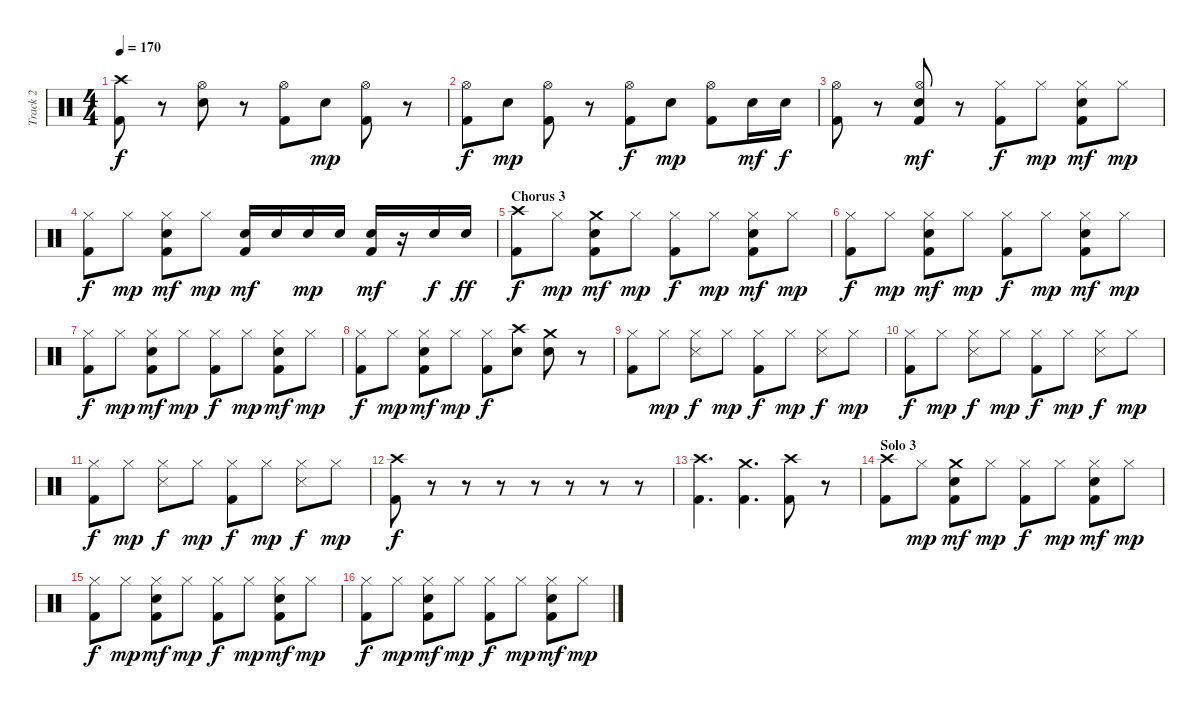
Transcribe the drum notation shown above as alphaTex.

\track ("Track 2" "Track 2") {instrument percussion}
\staff {score}
\articulation defaults
\ts (4 4)
\tempo 170
\clef neutral
\ks c
("Crash high (hit)" "Kick (hit) 2").8{dy f} r.8 ("Hi-Hat (open)" "Electric Snare (hit)").8 r.8 ("Hi-Hat (open)" "Kick (hit) 2").8 "Electric Snare (hit)".8{dy mp} ("Hi-Hat (open)" "Kick (hit) 2").8 r.8 |
("Hi-Hat (open)" "Kick (hit) 2").8{dy f} "Electric Snare (hit)".8{dy mp} ("Hi-Hat (open)" "Kick (hit) 2").8 r.8 ("Hi-Hat (open)" "Kick (hit) 2").8{dy f} "Electric Snare (hit)".8{dy mp} ("Hi-Hat (open)" "Kick (hit) 2").8 "Electric Snare (hit)".16{dy mf} "Electric Snare (hit)".16{dy f} |
("Hi-Hat (open)" "Kick (hit) 2").8 r.8 ("Hi-Hat (open)" "Electric Snare (hit)" "Kick (hit) 2").8{dy mf} r.8 ("Hi-Hat (closed)" "Kick (hit) 2").8{dy f} "Hi-Hat (closed)".8{dy mp} ("Hi-Hat (closed)" "Electric Snare (hit)" "Kick (hit) 2").8{dy mf} "Hi-Hat (closed)".8{dy mp} |
("Hi-Hat (closed)" "Kick (hit) 2").8{dy f} "Hi-Hat (closed)".8{dy mp} ("Hi-Hat (closed)" "Electric Snare (hit)" "Kick (hit) 2").8{dy mf} "Hi-Hat (closed)".8{dy mp} ("Electric Snare (hit)" "Kick (hit) 2").16{dy mf} "Electric Snare (hit)".16 "Electric Snare (hit)".16{dy mp} "Electric Snare (hit)".16 ("Electric Snare (hit)" "Kick (hit) 2").16{dy mf} r.16 "Electric Snare (hit)".16{dy f} "Electric Snare (hit)".16{dy ff} |
\section ("" "Chorus 3")
("Crash high (hit)" "Kick (hit) 2").8{dy f} "Hi-Hat (closed)".8{dy mp} ("Crash medium (hit)" "Electric Snare (hit)" "Kick (hit) 2").8{dy mf} "Hi-Hat (closed)".8{dy mp} ("Hi-Hat (closed)" "Kick (hit) 2").8{dy f} "Hi-Hat (closed)".8{dy mp} ("Hi-Hat (closed)" "Electric Snare (hit)" "Kick (hit) 2").8{dy mf} "Hi-Hat (closed)".8{dy mp} |
("Hi-Hat (closed)" "Kick (hit) 2").8{dy f} "Hi-Hat (closed)".8{dy mp} ("Hi-Hat (closed)" "Electric Snare (hit)" "Kick (hit) 2").8{dy mf} "Hi-Hat (closed)".8{dy mp} ("Hi-Hat (closed)" "Kick (hit) 2").8{dy f} "Hi-Hat (closed)".8{dy mp} ("Hi-Hat (closed)" "Electric Snare (hit)" "Kick (hit) 2").8{dy mf} "Hi-Hat (closed)".8{dy mp} |
("Hi-Hat (closed)" "Kick (hit) 2").8{dy f} "Hi-Hat (closed)".8{dy mp} ("Hi-Hat (closed)" "Electric Snare (hit)" "Kick (hit) 2").8{dy mf} "Hi-Hat (closed)".8{dy mp} ("Hi-Hat (closed)" "Kick (hit) 2").8{dy f} "Hi-Hat (closed)".8{dy mp} ("Hi-Hat (closed)" "Electric Snare (hit)" "Kick (hit) 2").8{dy mf} "Hi-Hat (closed)".8{dy mp} |
("Hi-Hat (closed)" "Kick (hit) 2").8{dy f} "Hi-Hat (closed)".8{dy mp} ("Hi-Hat (closed)" "Electric Snare (hit)" "Kick (hit) 2").8{dy mf} "Hi-Hat (closed)".8{dy mp} ("Hi-Hat (closed)" "Kick (hit) 2").8{dy f} ("Crash high (hit)" "Electric Snare (hit)").8 ("Crash medium (hit)" "Electric Snare (hit)").8 r.8 |
("Hi-Hat (closed)" "Kick (hit) 2").8 "Hi-Hat (closed)".8{dy mp} ("Hi-Hat (closed)" "Snare (side stick) 3").8{dy f} "Hi-Hat (closed)".8{dy mp} ("Hi-Hat (closed)" "Kick (hit) 2").8{dy f} "Hi-Hat (closed)".8{dy mp} ("Hi-Hat (closed)" "Snare (side stick) 3").8{dy f} "Hi-Hat (closed)".8{dy mp} |
("Hi-Hat (closed)" "Kick (hit) 2").8{dy f} "Hi-Hat (closed)".8{dy mp} ("Hi-Hat (closed)" "Snare (side stick) 3").8{dy f} "Hi-Hat (closed)".8{dy mp} ("Hi-Hat (closed)" "Kick (hit) 2").8{dy f} "Hi-Hat (closed)".8{dy mp} ("Hi-Hat (closed)" "Snare (side stick) 3").8{dy f} "Hi-Hat (closed)".8{dy mp} |
("Hi-Hat (closed)" "Kick (hit) 2").8{dy f} "Hi-Hat (closed)".8{dy mp} ("Hi-Hat (closed)" "Snare (side stick) 3").8{dy f} "Hi-Hat (closed)".8{dy mp} ("Hi-Hat (closed)" "Kick (hit) 2").8{dy f} "Hi-Hat (closed)".8{dy mp} ("Hi-Hat (closed)" "Snare (side stick) 3").8{dy f} "Hi-Hat (closed)".8{dy mp} |
("Crash high (hit)" "Kick (hit) 2").8{dy f} r.8 r.8 r.8 r.8 r.8 r.8 r.8 |
("Crash high (hit)" "Kick (hit) 2").4{d} ("Crash medium (hit)" "Kick (hit) 2").4{d} ("Crash high (hit)" "Kick (hit) 2").8 r.8 |
\section ("" "Solo 3")
("Crash high (hit)" "Kick (hit) 2").8 "Hi-Hat (closed)".8{dy mp} ("Crash medium (hit)" "Electric Snare (hit)" "Kick (hit) 2").8{dy mf} "Hi-Hat (closed)".8{dy mp} ("Hi-Hat (closed)" "Kick (hit) 2").8{dy f} "Hi-Hat (closed)".8{dy mp} ("Hi-Hat (closed)" "Electric Snare (hit)" "Kick (hit) 2").8{dy mf} "Hi-Hat (closed)".8{dy mp} |
("Hi-Hat (closed)" "Kick (hit) 2").8{dy f} "Hi-Hat (closed)".8{dy mp} ("Hi-Hat (closed)" "Electric Snare (hit)" "Kick (hit) 2").8{dy mf} "Hi-Hat (closed)".8{dy mp} ("Hi-Hat (closed)" "Kick (hit) 2").8{dy f} "Hi-Hat (closed)".8{dy mp} ("Hi-Hat (closed)" "Electric Snare (hit)" "Kick (hit) 2").8{dy mf} "Hi-Hat (closed)".8{dy mp} |
("Hi-Hat (closed)" "Kick (hit) 2").8{dy f} "Hi-Hat (closed)".8{dy mp} ("Hi-Hat (closed)" "Electric Snare (hit)" "Kick (hit) 2").8{dy mf} "Hi-Hat (closed)".8{dy mp} ("Hi-Hat (closed)" "Kick (hit) 2").8{dy f} "Hi-Hat (closed)".8{dy mp} ("Hi-Hat (closed)" "Electric Snare (hit)" "Kick (hit) 2").8{dy mf} "Hi-Hat (closed)".8{dy mp}
